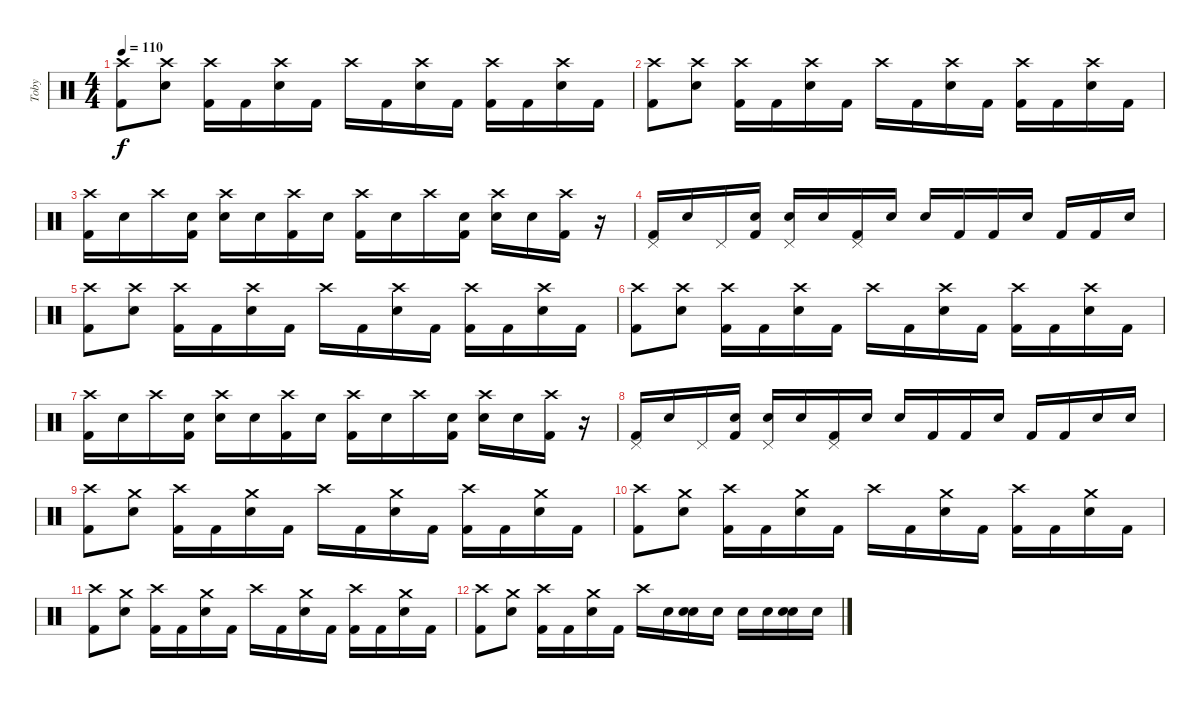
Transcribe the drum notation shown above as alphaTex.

\track ("Toby" "Toby") {instrument percussion}
\staff {score}
\articulation defaults
\ts (4 4)
\tempo 110
\clef neutral
\ks c
("Crash high (hit)" "Kick (hit) 2").8{dy f} ("Crash high (hit)" "Electric Snare (hit)").8 ("Crash high (hit)" "Kick (hit) 2").16 "Kick (hit) 2".16 ("Crash high (hit)" "Electric Snare (hit)").16 "Kick (hit) 2".16 "Crash high (hit)".16 "Kick (hit) 2".16 ("Crash high (hit)" "Electric Snare (hit)").16 "Kick (hit) 2".16 ("Crash high (hit)" "Kick (hit) 2").16 "Kick (hit) 2".16 ("Crash high (hit)" "Electric Snare (hit)").16 "Kick (hit) 2".16 |
("Crash high (hit)" "Kick (hit) 2").8 ("Crash high (hit)" "Electric Snare (hit)").8 ("Crash high (hit)" "Kick (hit) 2").16 "Kick (hit) 2".16 ("Crash high (hit)" "Electric Snare (hit)").16 "Kick (hit) 2".16 "Crash high (hit)".16 "Kick (hit) 2".16 ("Crash high (hit)" "Electric Snare (hit)").16 "Kick (hit) 2".16 ("Crash high (hit)" "Kick (hit) 2").16 "Kick (hit) 2".16 ("Crash high (hit)" "Electric Snare (hit)").16 "Kick (hit) 2".16 |
("Crash high (hit)" "Kick (hit) 2").16 "Snare (hit)".16 "Crash high (hit)".16 ("Snare (hit)" "Kick (hit) 2").16 ("Crash high (hit)" "Electric Snare (hit)").16 "Snare (hit)".16 ("Crash high (hit)" "Kick (hit) 2").16 "Snare (hit)".16 ("Crash high (hit)" "Kick (hit) 2").16 "Snare (hit)".16 "Crash high (hit)".16 ("Snare (hit)" "Kick (hit) 2").16 ("Crash high (hit)" "Electric Snare (hit)").16 "Snare (hit)".16 ("Crash high (hit)" "Kick (hit) 2").16 r.16 |
("Pedal Hi-Hat (hit)" "Kick (hit) 2").16 "Snare (hit)".16 "Pedal Hi-Hat (hit)".16 ("Snare (hit)" "Kick (hit) 2").16 ("Pedal Hi-Hat (hit)" "Electric Snare (hit)").16 "Snare (hit)".16 ("Pedal Hi-Hat (hit)" "Kick (hit) 2").16 "Snare (hit)".16 "Electric Snare (hit)".16 "Kick (hit) 2".16 "Kick (hit) 2".16 "Electric Snare (hit)".16 "Kick (hit) 2".16 "Kick (hit) 2".16 "Electric Snare (hit)".16 |
("Crash high (hit)" "Kick (hit) 2").8 ("Crash high (hit)" "Electric Snare (hit)").8 ("Crash high (hit)" "Kick (hit) 2").16 "Kick (hit) 2".16 ("Crash high (hit)" "Electric Snare (hit)").16 "Kick (hit) 2".16 "Crash high (hit)".16 "Kick (hit) 2".16 ("Crash high (hit)" "Electric Snare (hit)").16 "Kick (hit) 2".16 ("Crash high (hit)" "Kick (hit) 2").16 "Kick (hit) 2".16 ("Crash high (hit)" "Electric Snare (hit)").16 "Kick (hit) 2".16 |
("Crash high (hit)" "Kick (hit) 2").8 ("Crash high (hit)" "Electric Snare (hit)").8 ("Crash high (hit)" "Kick (hit) 2").16 "Kick (hit) 2".16 ("Crash high (hit)" "Electric Snare (hit)").16 "Kick (hit) 2".16 "Crash high (hit)".16 "Kick (hit) 2".16 ("Crash high (hit)" "Electric Snare (hit)").16 "Kick (hit) 2".16 ("Crash high (hit)" "Kick (hit) 2").16 "Kick (hit) 2".16 ("Crash high (hit)" "Electric Snare (hit)").16 "Kick (hit) 2".16 |
("Crash high (hit)" "Kick (hit) 2").16 "Snare (hit)".16 "Crash high (hit)".16 ("Snare (hit)" "Kick (hit) 2").16 ("Crash high (hit)" "Electric Snare (hit)").16 "Snare (hit)".16 ("Crash high (hit)" "Kick (hit) 2").16 "Snare (hit)".16 ("Crash high (hit)" "Kick (hit) 2").16 "Snare (hit)".16 "Crash high (hit)".16 ("Snare (hit)" "Kick (hit) 2").16 ("Crash high (hit)" "Electric Snare (hit)").16 "Snare (hit)".16 ("Crash high (hit)" "Kick (hit) 2").16 r.16 |
("Pedal Hi-Hat (hit)" "Kick (hit) 2").16 "Snare (hit)".16 "Pedal Hi-Hat (hit)".16 ("Snare (hit)" "Kick (hit) 2").16 ("Pedal Hi-Hat (hit)" "Electric Snare (hit)").16 "Snare (hit)".16 ("Pedal Hi-Hat (hit)" "Kick (hit) 2").16 "Snare (hit)".16 "Electric Snare (hit)".16 "Kick (hit) 2".16 "Kick (hit) 2".16 "Electric Snare (hit)".16 "Kick (hit) 2".16 "Kick (hit) 2".16 "Electric Snare (hit)".16 "Electric Snare (hit)".16 |
("Crash high (hit)" "Kick (hit) 2").8 ("Crash medium (hit)" "Electric Snare (hit)").8 ("Crash high (hit)" "Kick (hit) 2").16 "Kick (hit) 2".16 ("Crash medium (hit)" "Electric Snare (hit)").16 "Kick (hit) 2".16 "Crash high (hit)".16 "Kick (hit) 2".16 ("Crash medium (hit)" "Electric Snare (hit)").16 "Kick (hit) 2".16 ("Crash high (hit)" "Kick (hit) 2").16 "Kick (hit) 2".16 ("Crash medium (hit)" "Electric Snare (hit)").16 "Kick (hit) 2".16 |
("Crash high (hit)" "Kick (hit) 2").8 ("Crash medium (hit)" "Electric Snare (hit)").8 ("Crash high (hit)" "Kick (hit) 2").16 "Kick (hit) 2".16 ("Crash medium (hit)" "Electric Snare (hit)").16 "Kick (hit) 2".16 "Crash high (hit)".16 "Kick (hit) 2".16 ("Crash medium (hit)" "Electric Snare (hit)").16 "Kick (hit) 2".16 ("Crash high (hit)" "Kick (hit) 2").16 "Kick (hit) 2".16 ("Crash medium (hit)" "Electric Snare (hit)").16 "Kick (hit) 2".16 |
("Crash high (hit)" "Kick (hit) 2").8 ("Crash medium (hit)" "Electric Snare (hit)").8 ("Crash high (hit)" "Kick (hit) 2").16 "Kick (hit) 2".16 ("Crash medium (hit)" "Electric Snare (hit)").16 "Kick (hit) 2".16 "Crash high (hit)".16 "Kick (hit) 2".16 ("Crash medium (hit)" "Electric Snare (hit)").16 "Kick (hit) 2".16 ("Crash high (hit)" "Kick (hit) 2").16 "Kick (hit) 2".16 ("Crash medium (hit)" "Electric Snare (hit)").16 "Kick (hit) 2".16 |
("Crash high (hit)" "Kick (hit) 2").8 ("Crash medium (hit)" "Electric Snare (hit)").8 ("Crash high (hit)" "Kick (hit) 2").16 "Kick (hit) 2".16 ("Crash medium (hit)" "Electric Snare (hit)").16 "Kick (hit) 2".16 "Crash high (hit)".16 "Electric Snare (hit)".16 ("Electric Snare (hit)" "Electric Snare (hit)").16 "Electric Snare (hit)".16 "Electric Snare (hit)".16 "Electric Snare (hit)".16 ("Electric Snare (hit)" "Electric Snare (hit)").16 "Electric Snare (hit)".16
